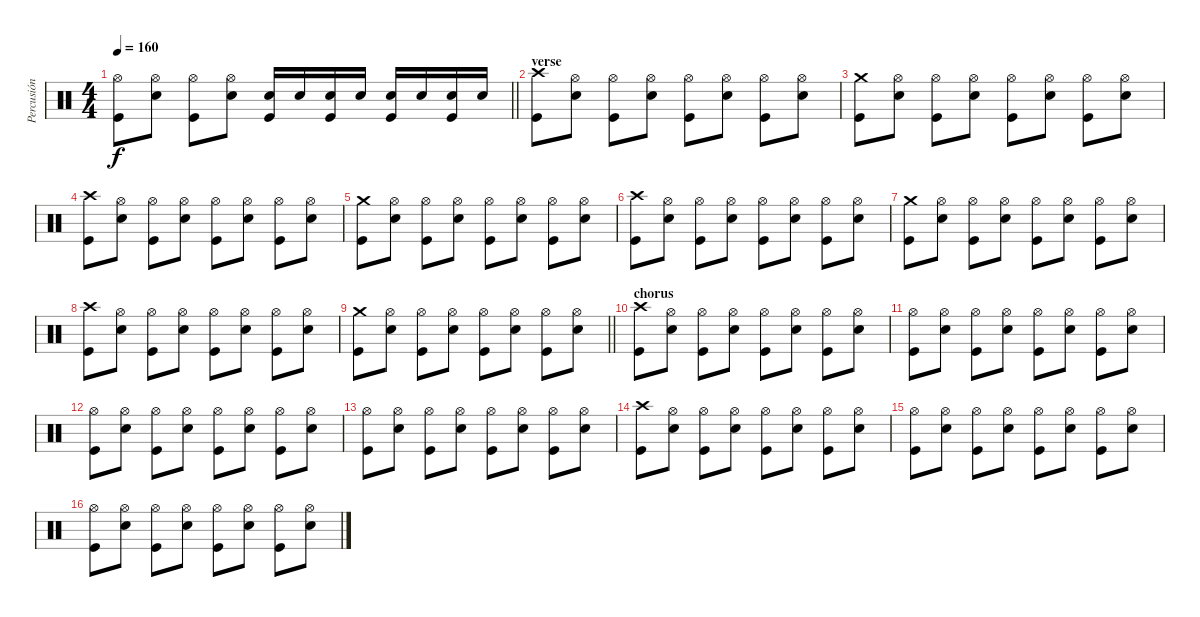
\track ("Percusión" "Percusión") {instrument percussion}
\staff
\articulation defaults
\ts (4 4)
\tempo 160
\clef neutral
\barLineRight lightlight
\ks c
("Kick (hit)" "Hi-Hat (open)").8{dy f} ("Hi-Hat (open)" "Electric Snare (hit)").8 ("Kick (hit)" "Hi-Hat (open)").8 ("Hi-Hat (open)" "Electric Snare (hit)").8 ("Kick (hit)" "Electric Snare (hit)").16 "Electric Snare (hit)".16 ("Kick (hit)" "Electric Snare (hit)").16 "Electric Snare (hit)".16 ("Kick (hit)" "Electric Snare (hit)").16 "Electric Snare (hit)".16 ("Kick (hit)" "Electric Snare (hit)").16 "Electric Snare (hit)".16 |
\section ("" "verse")
("Kick (hit)" "Crash high (hit)").8 ("Hi-Hat (open)" "Electric Snare (hit)").8 ("Kick (hit)" "Hi-Hat (open)").8 ("Hi-Hat (open)" "Electric Snare (hit)").8 ("Kick (hit)" "Hi-Hat (open)").8 ("Hi-Hat (open)" "Electric Snare (hit)").8 ("Kick (hit)" "Hi-Hat (open)").8 ("Hi-Hat (open)" "Electric Snare (hit)").8 |
("Kick (hit)" "Crash medium (hit)").8 ("Hi-Hat (open)" "Electric Snare (hit)").8 ("Kick (hit)" "Hi-Hat (open)").8 ("Hi-Hat (open)" "Electric Snare (hit)").8 ("Kick (hit)" "Hi-Hat (open)").8 ("Hi-Hat (open)" "Electric Snare (hit)").8 ("Kick (hit)" "Hi-Hat (open)").8 ("Hi-Hat (open)" "Electric Snare (hit)").8 |
("Kick (hit)" "Crash high (hit)").8 ("Hi-Hat (open)" "Electric Snare (hit)").8 ("Kick (hit)" "Hi-Hat (open)").8 ("Hi-Hat (open)" "Electric Snare (hit)").8 ("Kick (hit)" "Hi-Hat (open)").8 ("Hi-Hat (open)" "Electric Snare (hit)").8 ("Kick (hit)" "Hi-Hat (open)").8 ("Hi-Hat (open)" "Electric Snare (hit)").8 |
("Kick (hit)" "Crash medium (hit)").8 ("Hi-Hat (open)" "Electric Snare (hit)").8 ("Kick (hit)" "Hi-Hat (open)").8 ("Hi-Hat (open)" "Electric Snare (hit)").8 ("Kick (hit)" "Hi-Hat (open)").8 ("Hi-Hat (open)" "Electric Snare (hit)").8 ("Kick (hit)" "Hi-Hat (open)").8 ("Hi-Hat (open)" "Electric Snare (hit)").8 |
("Kick (hit)" "Crash high (hit)").8 ("Hi-Hat (open)" "Electric Snare (hit)").8 ("Kick (hit)" "Hi-Hat (open)").8 ("Hi-Hat (open)" "Electric Snare (hit)").8 ("Kick (hit)" "Hi-Hat (open)").8 ("Hi-Hat (open)" "Electric Snare (hit)").8 ("Kick (hit)" "Hi-Hat (open)").8 ("Hi-Hat (open)" "Electric Snare (hit)").8 |
("Kick (hit)" "Crash medium (hit)").8 ("Hi-Hat (open)" "Electric Snare (hit)").8 ("Kick (hit)" "Hi-Hat (open)").8 ("Hi-Hat (open)" "Electric Snare (hit)").8 ("Kick (hit)" "Hi-Hat (open)").8 ("Hi-Hat (open)" "Electric Snare (hit)").8 ("Kick (hit)" "Hi-Hat (open)").8 ("Hi-Hat (open)" "Electric Snare (hit)").8 |
("Kick (hit)" "Crash high (hit)").8 ("Hi-Hat (open)" "Electric Snare (hit)").8 ("Kick (hit)" "Hi-Hat (open)").8 ("Hi-Hat (open)" "Electric Snare (hit)").8 ("Kick (hit)" "Hi-Hat (open)").8 ("Hi-Hat (open)" "Electric Snare (hit)").8 ("Kick (hit)" "Hi-Hat (open)").8 ("Hi-Hat (open)" "Electric Snare (hit)").8 |
\barLineRight lightlight
("Kick (hit)" "Crash medium (hit)").8 ("Hi-Hat (open)" "Electric Snare (hit)").8 ("Kick (hit)" "Hi-Hat (open)").8 ("Hi-Hat (open)" "Electric Snare (hit)").8 ("Kick (hit)" "Hi-Hat (open)").8 ("Hi-Hat (open)" "Electric Snare (hit)").8 ("Kick (hit)" "Hi-Hat (open)").8 ("Hi-Hat (open)" "Electric Snare (hit)").8 |
\section ("" "chorus")
("Kick (hit)" "Crash high (hit)").8 ("Hi-Hat (open)" "Electric Snare (hit)").8 ("Kick (hit)" "Hi-Hat (open)").8 ("Hi-Hat (open)" "Electric Snare (hit)").8 ("Kick (hit)" "Hi-Hat (open)").8 ("Hi-Hat (open)" "Electric Snare (hit)").8 ("Kick (hit)" "Hi-Hat (open)").8 ("Hi-Hat (open)" "Electric Snare (hit)").8 |
("Kick (hit)" "Hi-Hat (open)").8 ("Hi-Hat (open)" "Electric Snare (hit)").8 ("Kick (hit)" "Hi-Hat (open)").8 ("Hi-Hat (open)" "Electric Snare (hit)").8 ("Kick (hit)" "Hi-Hat (open)").8 ("Hi-Hat (open)" "Electric Snare (hit)").8 ("Kick (hit)" "Hi-Hat (open)").8 ("Hi-Hat (open)" "Electric Snare (hit)").8 |
("Kick (hit)" "Hi-Hat (open)").8 ("Hi-Hat (open)" "Electric Snare (hit)").8 ("Kick (hit)" "Hi-Hat (open)").8 ("Hi-Hat (open)" "Electric Snare (hit)").8 ("Kick (hit)" "Hi-Hat (open)").8 ("Hi-Hat (open)" "Electric Snare (hit)").8 ("Kick (hit)" "Hi-Hat (open)").8 ("Hi-Hat (open)" "Electric Snare (hit)").8 |
("Kick (hit)" "Hi-Hat (open)").8 ("Hi-Hat (open)" "Electric Snare (hit)").8 ("Kick (hit)" "Hi-Hat (open)").8 ("Hi-Hat (open)" "Electric Snare (hit)").8 ("Kick (hit)" "Hi-Hat (open)").8 ("Hi-Hat (open)" "Electric Snare (hit)").8 ("Kick (hit)" "Hi-Hat (open)").8 ("Hi-Hat (open)" "Electric Snare (hit)").8 |
("Kick (hit)" "Crash high (hit)").8 ("Hi-Hat (open)" "Electric Snare (hit)").8 ("Kick (hit)" "Hi-Hat (open)").8 ("Hi-Hat (open)" "Electric Snare (hit)").8 ("Kick (hit)" "Hi-Hat (open)").8 ("Hi-Hat (open)" "Electric Snare (hit)").8 ("Kick (hit)" "Hi-Hat (open)").8 ("Hi-Hat (open)" "Electric Snare (hit)").8 |
("Kick (hit)" "Hi-Hat (open)").8 ("Hi-Hat (open)" "Electric Snare (hit)").8 ("Kick (hit)" "Hi-Hat (open)").8 ("Hi-Hat (open)" "Electric Snare (hit)").8 ("Kick (hit)" "Hi-Hat (open)").8 ("Hi-Hat (open)" "Electric Snare (hit)").8 ("Kick (hit)" "Hi-Hat (open)").8 ("Hi-Hat (open)" "Electric Snare (hit)").8 |
("Kick (hit)" "Hi-Hat (open)").8 ("Hi-Hat (open)" "Electric Snare (hit)").8 ("Kick (hit)" "Hi-Hat (open)").8 ("Hi-Hat (open)" "Electric Snare (hit)").8 ("Kick (hit)" "Hi-Hat (open)").8 ("Hi-Hat (open)" "Electric Snare (hit)").8 ("Kick (hit)" "Hi-Hat (open)").8 ("Hi-Hat (open)" "Electric Snare (hit)").8
